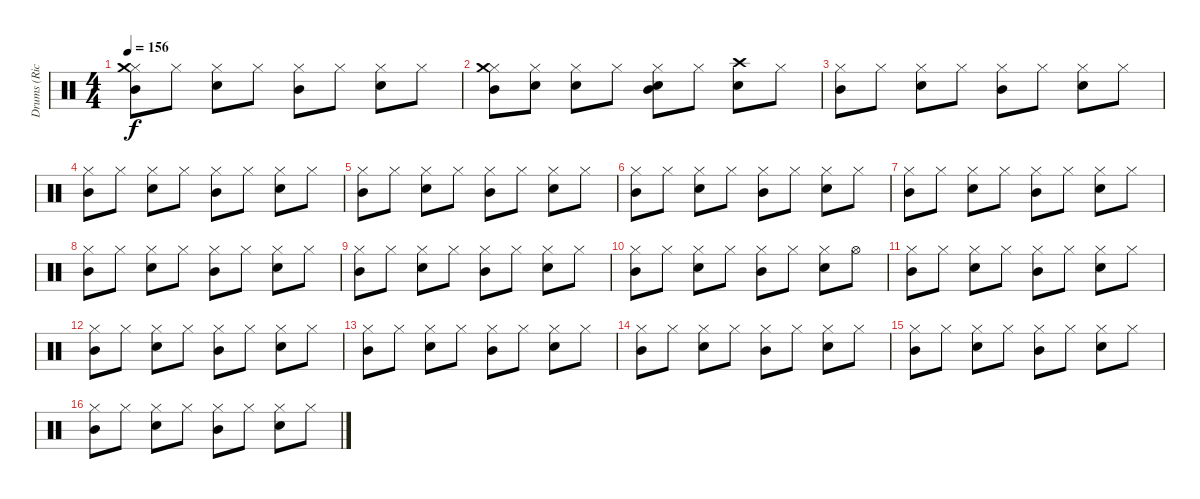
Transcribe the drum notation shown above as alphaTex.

\track ("Drums (Ricky)" "Drums (Ric") {instrument percussion}
\staff {score}
\articulation defaults
\ts (4 4)
\tempo 156
\clef neutral
\ks c
("Mid Tom (hit)" "Hi-Hat (closed)" "Crash medium (hit)").8{dy f} "Hi-Hat (closed)".8 ("Hi-Hat (closed)" "Electric Snare (hit)").8 "Hi-Hat (closed)".8 ("Mid Tom (hit)" "Hi-Hat (closed)").8 "Hi-Hat (closed)".8 ("Hi-Hat (closed)" "Electric Snare (hit)").8 "Hi-Hat (closed)".8 |
("Mid Tom (hit)" "Hi-Hat (closed)" "Crash medium (hit)").8 ("Hi-Hat (closed)" "Electric Snare (hit)").8 ("Hi-Hat (closed)" "Electric Snare (hit)").8 "Hi-Hat (closed)".8 ("Mid Tom (hit)" "Hi-Hat (closed)" "Electric Snare (hit)").8 "Hi-Hat (closed)".8 ("Crash high (hit)" "Electric Snare (hit)").8 "Hi-Hat (closed)".8 |
("Mid Tom (hit)" "Hi-Hat (closed)").8 "Hi-Hat (closed)".8 ("Electric Snare (hit)" "Hi-Hat (closed)").8 "Hi-Hat (closed)".8 ("Mid Tom (hit)" "Hi-Hat (closed)").8 "Hi-Hat (closed)".8 ("Electric Snare (hit)" "Hi-Hat (closed)").8 "Hi-Hat (closed)".8 |
("Mid Tom (hit)" "Hi-Hat (closed)").8 "Hi-Hat (closed)".8 ("Electric Snare (hit)" "Hi-Hat (closed)").8 "Hi-Hat (closed)".8 ("Mid Tom (hit)" "Hi-Hat (closed)").8 "Hi-Hat (closed)".8 ("Electric Snare (hit)" "Hi-Hat (closed)").8 "Hi-Hat (closed)".8 |
("Mid Tom (hit)" "Hi-Hat (closed)").8 "Hi-Hat (closed)".8 ("Electric Snare (hit)" "Hi-Hat (closed)").8 "Hi-Hat (closed)".8 ("Mid Tom (hit)" "Hi-Hat (closed)").8 "Hi-Hat (closed)".8 ("Electric Snare (hit)" "Hi-Hat (closed)").8 "Hi-Hat (closed)".8 |
("Mid Tom (hit)" "Hi-Hat (closed)").8 "Hi-Hat (closed)".8 ("Electric Snare (hit)" "Hi-Hat (closed)").8 "Hi-Hat (closed)".8 ("Mid Tom (hit)" "Hi-Hat (closed)").8 "Hi-Hat (closed)".8 ("Electric Snare (hit)" "Hi-Hat (closed)").8 "Hi-Hat (closed)".8 |
("Mid Tom (hit)" "Hi-Hat (closed)").8 "Hi-Hat (closed)".8 ("Electric Snare (hit)" "Hi-Hat (closed)").8 "Hi-Hat (closed)".8 ("Mid Tom (hit)" "Hi-Hat (closed)").8 "Hi-Hat (closed)".8 ("Electric Snare (hit)" "Hi-Hat (closed)").8 "Hi-Hat (closed)".8 |
("Mid Tom (hit)" "Hi-Hat (closed)").8 "Hi-Hat (closed)".8 ("Electric Snare (hit)" "Hi-Hat (closed)").8 "Hi-Hat (closed)".8 ("Mid Tom (hit)" "Hi-Hat (closed)").8 "Hi-Hat (closed)".8 ("Electric Snare (hit)" "Hi-Hat (closed)").8 "Hi-Hat (closed)".8 |
("Mid Tom (hit)" "Hi-Hat (closed)").8 "Hi-Hat (closed)".8 ("Electric Snare (hit)" "Hi-Hat (closed)").8 "Hi-Hat (closed)".8 ("Mid Tom (hit)" "Hi-Hat (closed)").8 "Hi-Hat (closed)".8 ("Electric Snare (hit)" "Hi-Hat (closed)").8 "Hi-Hat (closed)".8 |
("Mid Tom (hit)" "Hi-Hat (closed)").8 "Hi-Hat (closed)".8 ("Electric Snare (hit)" "Hi-Hat (closed)").8 "Hi-Hat (closed)".8 ("Mid Tom (hit)" "Hi-Hat (closed)").8 "Hi-Hat (closed)".8 ("Electric Snare (hit)" "Hi-Hat (closed)").8 "Hi-Hat (open)".8 |
("Mid Tom (hit)" "Hi-Hat (closed)").8 "Hi-Hat (closed)".8 ("Electric Snare (hit)" "Hi-Hat (closed)").8 "Hi-Hat (closed)".8 ("Mid Tom (hit)" "Hi-Hat (closed)").8 "Hi-Hat (closed)".8 ("Electric Snare (hit)" "Hi-Hat (closed)").8 "Hi-Hat (closed)".8 |
("Mid Tom (hit)" "Hi-Hat (closed)").8 "Hi-Hat (closed)".8 ("Electric Snare (hit)" "Hi-Hat (closed)").8 "Hi-Hat (closed)".8 ("Mid Tom (hit)" "Hi-Hat (closed)").8 "Hi-Hat (closed)".8 ("Electric Snare (hit)" "Hi-Hat (closed)").8 "Hi-Hat (closed)".8 |
("Mid Tom (hit)" "Hi-Hat (closed)").8 "Hi-Hat (closed)".8 ("Electric Snare (hit)" "Hi-Hat (closed)").8 "Hi-Hat (closed)".8 ("Mid Tom (hit)" "Hi-Hat (closed)").8 "Hi-Hat (closed)".8 ("Electric Snare (hit)" "Hi-Hat (closed)").8 "Hi-Hat (closed)".8 |
("Mid Tom (hit)" "Hi-Hat (closed)").8 "Hi-Hat (closed)".8 ("Electric Snare (hit)" "Hi-Hat (closed)").8 "Hi-Hat (closed)".8 ("Mid Tom (hit)" "Hi-Hat (closed)").8 "Hi-Hat (closed)".8 ("Electric Snare (hit)" "Hi-Hat (closed)").8 "Hi-Hat (closed)".8 |
("Mid Tom (hit)" "Hi-Hat (closed)").8 "Hi-Hat (closed)".8 ("Electric Snare (hit)" "Hi-Hat (closed)").8 "Hi-Hat (closed)".8 ("Mid Tom (hit)" "Hi-Hat (closed)").8 "Hi-Hat (closed)".8 ("Electric Snare (hit)" "Hi-Hat (closed)").8 "Hi-Hat (closed)".8 |
("Mid Tom (hit)" "Hi-Hat (closed)").8 "Hi-Hat (closed)".8 ("Electric Snare (hit)" "Hi-Hat (closed)").8 "Hi-Hat (closed)".8 ("Mid Tom (hit)" "Hi-Hat (closed)").8 "Hi-Hat (closed)".8 ("Electric Snare (hit)" "Hi-Hat (closed)").8 "Hi-Hat (closed)".8
